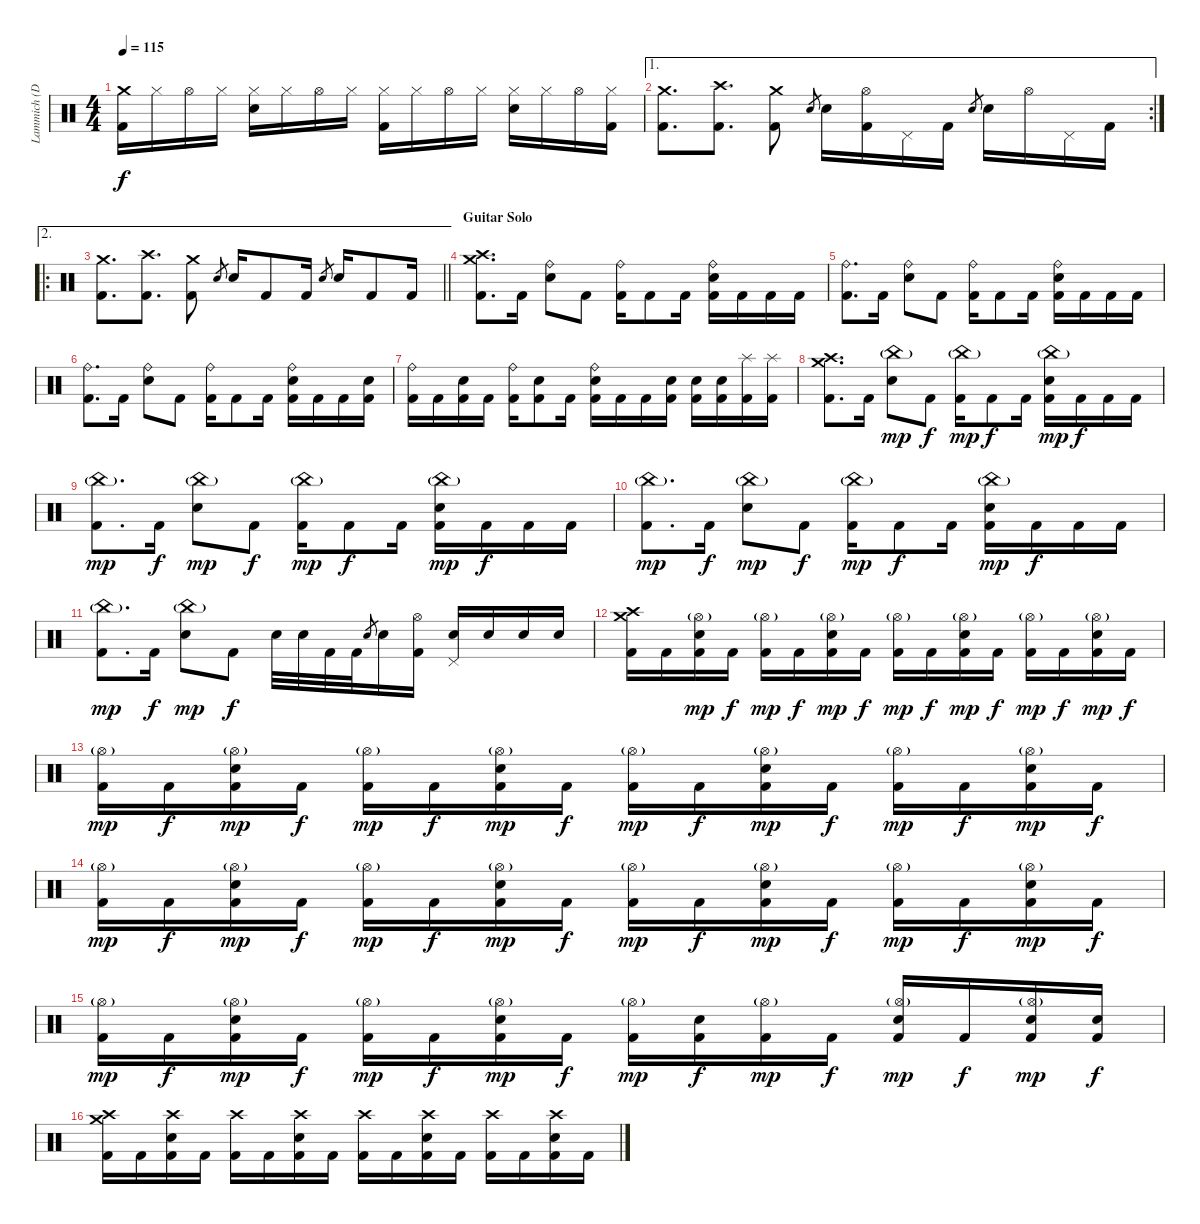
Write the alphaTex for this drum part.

\track ("Lammich (Drums)" "Lammich (D") {instrument percussion}
\staff {score}
\articulation defaults
\ts (4 4)
\tempo 115
\clef neutral
\ks c
("Crash medium (hit)" "Kick (hit) 2").16{dy f} "Hi-Hat (closed)".16 "Hi-Hat (open)".16 "Hi-Hat (closed)".16 ("Hi-Hat (closed)" "Electric Snare (hit)").16 "Hi-Hat (closed)".16 "Hi-Hat (open)".16 "Hi-Hat (closed)".16 ("Hi-Hat (closed)" "Kick (hit) 2").16 "Hi-Hat (closed)".16 "Hi-Hat (open)".16 "Hi-Hat (closed)".16 ("Hi-Hat (closed)" "Electric Snare (hit)").16 "Hi-Hat (closed)".16 "Hi-Hat (open)".16 ("Hi-Hat (closed)" "Kick (hit) 2").16 |
\ae 1
\rc 2
("Crash medium (hit)" "Kick (hit) 2").8{d} ("Crash high (hit)" "Kick (hit) 2").8{d} ("Crash medium (hit)" "Kick (hit) 2").8 "Electric Snare (hit)".8{gr} "Electric Snare (hit)".16 ("Hi-Hat (open)" "Kick (hit) 2").16 "Pedal Hi-Hat (hit)".16 "Kick (hit) 2".16 "Electric Snare (hit)".8{gr} "Electric Snare (hit)".16 "Hi-Hat (open)".16 "Pedal Hi-Hat (hit)".16 "Kick (hit) 2".16 |
\ae 2
\ro
\barLineRight lightlight
("Crash medium (hit)" "Kick (hit) 2").8{d} ("Crash high (hit)" "Kick (hit) 2").8{d} ("Crash medium (hit)" "Kick (hit) 2").8 "Electric Snare (hit)".8{gr} "Electric Snare (hit)".16 "Kick (hit) 2".8 "Kick (hit) 2".16 "Electric Snare (hit)".8{gr} "Electric Snare (hit)".16 "Kick (hit) 2".8 "Kick (hit) 2".16 |
\section ("" "Guitar Solo")
("Crash medium (hit)" "Crash high (hit)" "Kick (hit) 2").8{d} "Kick (hit) 2".16 ("Ride (bell)" "Electric Snare (hit)").8 "Kick (hit) 2".8 ("Ride (bell)" "Kick (hit) 2").16 "Kick (hit) 2".8 "Kick (hit) 2".16 ("Ride (bell)" "Electric Snare (hit)" "Kick (hit) 2").16 "Kick (hit) 2".16 "Kick (hit) 2".16 "Kick (hit) 2".16 |
("Ride (bell)" "Kick (hit) 2").8{d} "Kick (hit) 2".16 ("Ride (bell)" "Electric Snare (hit)").8 "Kick (hit) 2".8 ("Ride (bell)" "Kick (hit) 2").16 "Kick (hit) 2".8 "Kick (hit) 2".16 ("Ride (bell)" "Electric Snare (hit)" "Kick (hit) 2").16 "Kick (hit) 2".16 "Kick (hit) 2".16 "Kick (hit) 2".16 |
("Ride (bell)" "Kick (hit) 2").8{d} "Kick (hit) 2".16 ("Ride (bell)" "Electric Snare (hit)").8 "Kick (hit) 2".8 ("Ride (bell)" "Kick (hit) 2").16 "Kick (hit) 2".8 "Kick (hit) 2".16 ("Ride (bell)" "Electric Snare (hit)" "Kick (hit) 2").16 "Kick (hit) 2".16 "Kick (hit) 2".16 ("Electric Snare (hit)" "Kick (hit) 2").16 |
("Ride (bell)" "Kick (hit) 2").16 "Kick (hit) 2".16 ("Electric Snare (hit)" "Kick (hit) 2").16 "Kick (hit) 2".16 ("Ride (bell)" "Kick (hit) 2").16 ("Electric Snare (hit)" "Kick (hit) 2").8 "Kick (hit) 2".16 ("Ride (bell)" "Electric Snare (hit)" "Kick (hit) 2").16 "Kick (hit) 2".16 "Kick (hit) 2".16 ("Electric Snare (hit)" "Kick (hit) 2").16 ("Electric Snare (hit)" "Kick (hit) 2").16 ("Electric Snare (hit)" "Kick (hit) 2").16 ("Splash (hit)" "Kick (hit) 2").16 ("Splash (hit)" "Kick (hit) 2").16 |
("Crash medium (hit)" "Crash high (hit)" "Kick (hit) 2").8{d} "Kick (hit) 2".16 ("China (hit)"{g} "Electric Snare (hit)").8{dy mp} "Kick (hit) 2".8{dy f} ("China (hit)"{g} "Kick (hit) 2").16{dy mp} "Kick (hit) 2".8{dy f} "Kick (hit) 2".16 ("China (hit)"{g} "Electric Snare (hit)" "Kick (hit) 2").16{dy mp} "Kick (hit) 2".16{dy f} "Kick (hit) 2".16 "Kick (hit) 2".16 |
("China (hit)"{g} "Kick (hit) 2").8{d dy mp} "Kick (hit) 2".16{dy f} ("China (hit)"{g} "Electric Snare (hit)").8{dy mp} "Kick (hit) 2".8{dy f} ("China (hit)"{g} "Kick (hit) 2").16{dy mp} "Kick (hit) 2".8{dy f} "Kick (hit) 2".16 ("China (hit)"{g} "Electric Snare (hit)" "Kick (hit) 2").16{dy mp} "Kick (hit) 2".16{dy f} "Kick (hit) 2".16 "Kick (hit) 2".16 |
("China (hit)"{g} "Kick (hit) 2").8{d dy mp} "Kick (hit) 2".16{dy f} ("China (hit)"{g} "Electric Snare (hit)").8{dy mp} "Kick (hit) 2".8{dy f} ("China (hit)"{g} "Kick (hit) 2").16{dy mp} "Kick (hit) 2".8{dy f} "Kick (hit) 2".16 ("China (hit)"{g} "Electric Snare (hit)" "Kick (hit) 2").16{dy mp} "Kick (hit) 2".16{dy f} "Kick (hit) 2".16 "Kick (hit) 2".16 |
("China (hit)"{g} "Kick (hit) 2").8{d dy mp} "Kick (hit) 2".16{dy f} ("China (hit)"{g} "Electric Snare (hit)").8{dy mp} "Kick (hit) 2".8{dy f} "Electric Snare (hit)".32 "Electric Snare (hit)".32 "Kick (hit) 2".32 "Kick (hit) 2".32 "Electric Snare (hit)".8{gr} "Electric Snare (hit)".16 ("Hi-Hat (open)" "Kick (hit) 2").16 ("Pedal Hi-Hat (hit)" "Electric Snare (hit)").16 "Electric Snare (hit)".16 "Electric Snare (hit)".16 "Electric Snare (hit)".16 |
("Crash medium (hit)" "Crash high (hit)" "Kick (hit) 2").16 "Kick (hit) 2".16 ("Hi-Hat (open)"{g} "Electric Snare (hit)" "Kick (hit) 2").16{dy mp} "Kick (hit) 2".16{dy f} ("Hi-Hat (open)"{g} "Kick (hit) 2").16{dy mp} "Kick (hit) 2".16{dy f} ("Hi-Hat (open)"{g} "Electric Snare (hit)" "Kick (hit) 2").16{dy mp} "Kick (hit) 2".16{dy f} ("Hi-Hat (open)"{g} "Kick (hit) 2").16{dy mp} "Kick (hit) 2".16{dy f} ("Hi-Hat (open)"{g} "Electric Snare (hit)" "Kick (hit) 2").16{dy mp} "Kick (hit) 2".16{dy f} ("Hi-Hat (open)"{g} "Kick (hit) 2").16{dy mp} "Kick (hit) 2".16{dy f} ("Hi-Hat (open)"{g} "Electric Snare (hit)" "Kick (hit) 2").16{dy mp} "Kick (hit) 2".16{dy f} |
("Hi-Hat (open)"{g} "Kick (hit) 2").16{dy mp} "Kick (hit) 2".16{dy f} ("Hi-Hat (open)"{g} "Electric Snare (hit)" "Kick (hit) 2").16{dy mp} "Kick (hit) 2".16{dy f} ("Hi-Hat (open)"{g} "Kick (hit) 2").16{dy mp} "Kick (hit) 2".16{dy f} ("Hi-Hat (open)"{g} "Electric Snare (hit)" "Kick (hit) 2").16{dy mp} "Kick (hit) 2".16{dy f} ("Hi-Hat (open)"{g} "Kick (hit) 2").16{dy mp} "Kick (hit) 2".16{dy f} ("Hi-Hat (open)"{g} "Electric Snare (hit)" "Kick (hit) 2").16{dy mp} "Kick (hit) 2".16{dy f} ("Hi-Hat (open)"{g} "Kick (hit) 2").16{dy mp} "Kick (hit) 2".16{dy f} ("Hi-Hat (open)"{g} "Electric Snare (hit)" "Kick (hit) 2").16{dy mp} "Kick (hit) 2".16{dy f} |
("Hi-Hat (open)"{g} "Kick (hit) 2").16{dy mp} "Kick (hit) 2".16{dy f} ("Hi-Hat (open)"{g} "Electric Snare (hit)" "Kick (hit) 2").16{dy mp} "Kick (hit) 2".16{dy f} ("Hi-Hat (open)"{g} "Kick (hit) 2").16{dy mp} "Kick (hit) 2".16{dy f} ("Hi-Hat (open)"{g} "Electric Snare (hit)" "Kick (hit) 2").16{dy mp} "Kick (hit) 2".16{dy f} ("Hi-Hat (open)"{g} "Kick (hit) 2").16{dy mp} "Kick (hit) 2".16{dy f} ("Hi-Hat (open)"{g} "Electric Snare (hit)" "Kick (hit) 2").16{dy mp} "Kick (hit) 2".16{dy f} ("Hi-Hat (open)"{g} "Kick (hit) 2").16{dy mp} "Kick (hit) 2".16{dy f} ("Hi-Hat (open)"{g} "Electric Snare (hit)" "Kick (hit) 2").16{dy mp} "Kick (hit) 2".16{dy f} |
("Hi-Hat (open)"{g} "Kick (hit) 2").16{dy mp} "Kick (hit) 2".16{dy f} ("Hi-Hat (open)"{g} "Electric Snare (hit)" "Kick (hit) 2").16{dy mp} "Kick (hit) 2".16{dy f} ("Hi-Hat (open)"{g} "Kick (hit) 2").16{dy mp} "Kick (hit) 2".16{dy f} ("Hi-Hat (open)"{g} "Electric Snare (hit)" "Kick (hit) 2").16{dy mp} "Kick (hit) 2".16{dy f} ("Hi-Hat (open)"{g} "Kick (hit) 2").16{dy mp} ("Electric Snare (hit)" "Kick (hit) 2").16{dy f} ("Hi-Hat (open)"{g} "Kick (hit) 2").16{dy mp} "Kick (hit) 2".16{dy f} ("Hi-Hat (open)"{g} "Electric Snare (hit)" "Kick (hit) 2").16{dy mp} "Kick (hit) 2".16{dy f} ("Hi-Hat (open)"{g} "Electric Snare (hit)" "Kick (hit) 2").16{dy mp} ("Electric Snare (hit)" "Kick (hit) 2").16{dy f} |
("Crash medium (hit)" "Crash high (hit)" "Kick (hit) 2").16 "Kick (hit) 2".16 ("Crash high (hit)" "Electric Snare (hit)" "Kick (hit) 2").16 "Kick (hit) 2".16 ("Crash high (hit)" "Kick (hit) 2").16 "Kick (hit) 2".16 ("Crash high (hit)" "Electric Snare (hit)" "Kick (hit) 2").16 "Kick (hit) 2".16 ("Crash high (hit)" "Kick (hit) 2").16 "Kick (hit) 2".16 ("Crash high (hit)" "Electric Snare (hit)" "Kick (hit) 2").16 "Kick (hit) 2".16 ("Crash high (hit)" "Kick (hit) 2").16 "Kick (hit) 2".16 ("Crash high (hit)" "Electric Snare (hit)" "Kick (hit) 2").16 "Kick (hit) 2".16
